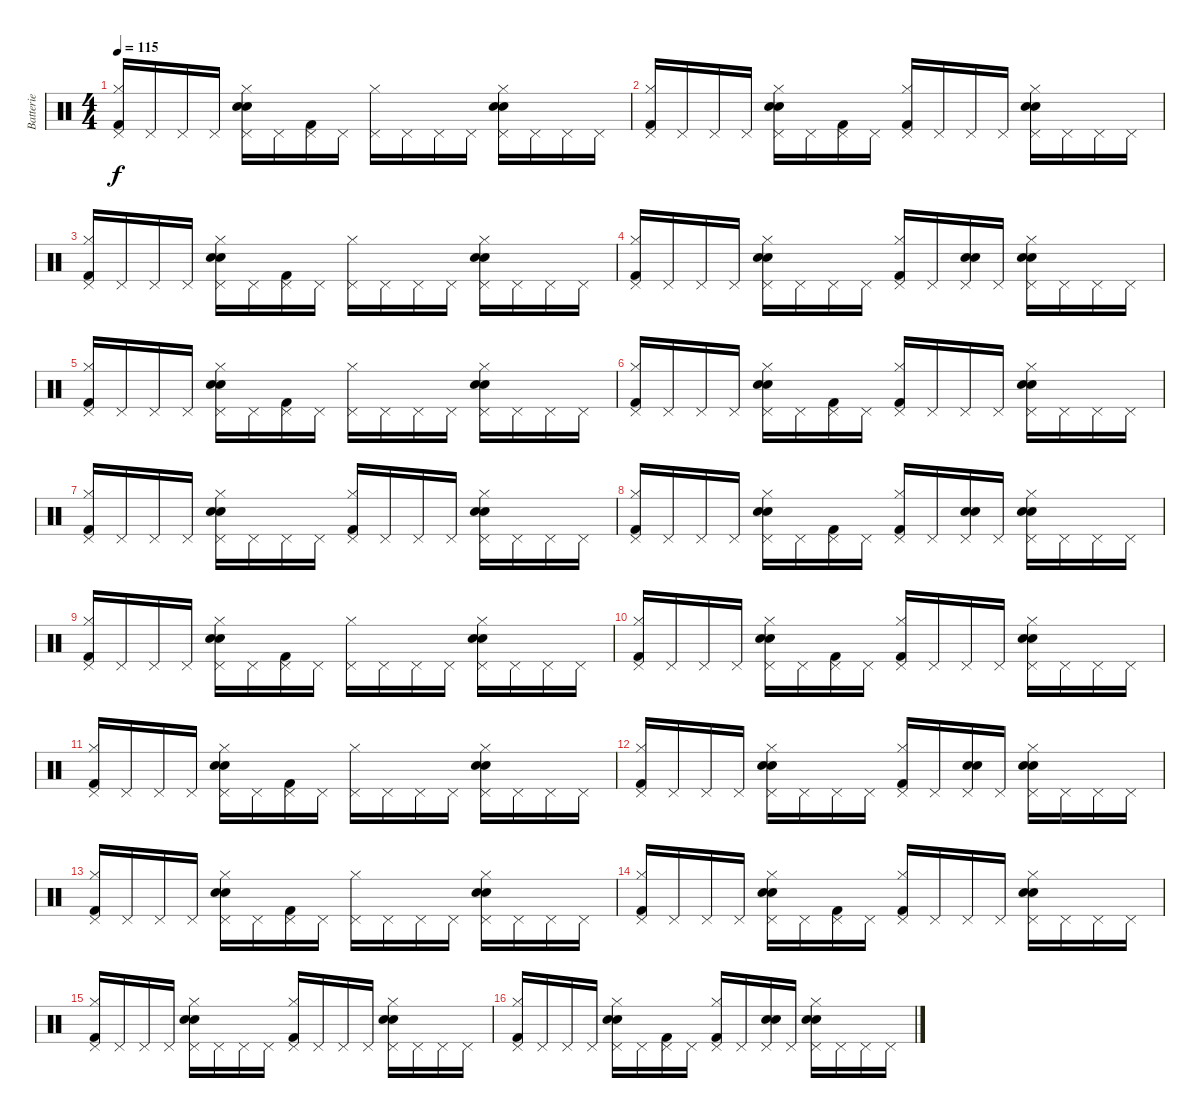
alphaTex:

\track ("Batterie" "Batterie") {instrument percussion}
\staff {score}
\articulation defaults
\ts (4 4)
\tempo 115
\clef neutral
\ks c
("Kick (hit) 2" "Hi-Hat (closed)" "Pedal Hi-Hat (hit)").16{dy f} "Pedal Hi-Hat (hit)".16 "Pedal Hi-Hat (hit)".16 "Pedal Hi-Hat (hit)".16 ("Electric Snare (hit)" "Snare (hit) 2" "Hi-Hat (closed)" "Pedal Hi-Hat (hit)").16 "Pedal Hi-Hat (hit)".16 ("Kick (hit) 2" "Pedal Hi-Hat (hit)").16 "Pedal Hi-Hat (hit)".16 ("Hi-Hat (closed)" "Pedal Hi-Hat (hit)").16 "Pedal Hi-Hat (hit)".16 "Pedal Hi-Hat (hit)".16 "Pedal Hi-Hat (hit)".16 ("Electric Snare (hit)" "Snare (hit) 2" "Hi-Hat (closed)" "Pedal Hi-Hat (hit)").16 "Pedal Hi-Hat (hit)".16 "Pedal Hi-Hat (hit)".16 "Pedal Hi-Hat (hit)".16 |
("Kick (hit) 2" "Hi-Hat (closed)" "Pedal Hi-Hat (hit)").16 "Pedal Hi-Hat (hit)".16 "Pedal Hi-Hat (hit)".16 "Pedal Hi-Hat (hit)".16 ("Electric Snare (hit)" "Snare (hit) 2" "Hi-Hat (closed)" "Pedal Hi-Hat (hit)").16 "Pedal Hi-Hat (hit)".16 ("Kick (hit) 2" "Pedal Hi-Hat (hit)").16 "Pedal Hi-Hat (hit)".16 ("Kick (hit) 2" "Hi-Hat (closed)" "Pedal Hi-Hat (hit)").16 "Pedal Hi-Hat (hit)".16 "Pedal Hi-Hat (hit)".16 "Pedal Hi-Hat (hit)".16 ("Electric Snare (hit)" "Snare (hit) 2" "Hi-Hat (closed)" "Pedal Hi-Hat (hit)").16 "Pedal Hi-Hat (hit)".16 "Pedal Hi-Hat (hit)".16 "Pedal Hi-Hat (hit)".16 |
("Kick (hit) 2" "Hi-Hat (closed)" "Pedal Hi-Hat (hit)").16 "Pedal Hi-Hat (hit)".16 "Pedal Hi-Hat (hit)".16 "Pedal Hi-Hat (hit)".16 ("Electric Snare (hit)" "Snare (hit) 2" "Hi-Hat (closed)" "Pedal Hi-Hat (hit)").16 "Pedal Hi-Hat (hit)".16 ("Kick (hit) 2" "Pedal Hi-Hat (hit)").16 "Pedal Hi-Hat (hit)".16 ("Hi-Hat (closed)" "Pedal Hi-Hat (hit)").16 "Pedal Hi-Hat (hit)".16 "Pedal Hi-Hat (hit)".16 "Pedal Hi-Hat (hit)".16 ("Electric Snare (hit)" "Snare (hit) 2" "Hi-Hat (closed)" "Pedal Hi-Hat (hit)").16 "Pedal Hi-Hat (hit)".16 "Pedal Hi-Hat (hit)".16 "Pedal Hi-Hat (hit)".16 |
("Kick (hit) 2" "Hi-Hat (closed)" "Pedal Hi-Hat (hit)").16 "Pedal Hi-Hat (hit)".16 "Pedal Hi-Hat (hit)".16 "Pedal Hi-Hat (hit)".16 ("Electric Snare (hit)" "Snare (hit) 2" "Hi-Hat (closed)" "Pedal Hi-Hat (hit)").16 "Pedal Hi-Hat (hit)".16 "Pedal Hi-Hat (hit)".16 "Pedal Hi-Hat (hit)".16 ("Kick (hit) 2" "Hi-Hat (closed)" "Pedal Hi-Hat (hit)").16 "Pedal Hi-Hat (hit)".16 ("Electric Snare (hit)" "Snare (hit) 2" "Pedal Hi-Hat (hit)").16 "Pedal Hi-Hat (hit)".16 ("Electric Snare (hit)" "Snare (hit) 2" "Hi-Hat (closed)" "Pedal Hi-Hat (hit)").16 "Pedal Hi-Hat (hit)".16 "Pedal Hi-Hat (hit)".16 "Pedal Hi-Hat (hit)".16 |
("Kick (hit) 2" "Hi-Hat (closed)" "Pedal Hi-Hat (hit)").16 "Pedal Hi-Hat (hit)".16 "Pedal Hi-Hat (hit)".16 "Pedal Hi-Hat (hit)".16 ("Electric Snare (hit)" "Snare (hit) 2" "Hi-Hat (closed)" "Pedal Hi-Hat (hit)").16 "Pedal Hi-Hat (hit)".16 ("Kick (hit) 2" "Pedal Hi-Hat (hit)").16 "Pedal Hi-Hat (hit)".16 ("Hi-Hat (closed)" "Pedal Hi-Hat (hit)").16 "Pedal Hi-Hat (hit)".16 "Pedal Hi-Hat (hit)".16 "Pedal Hi-Hat (hit)".16 ("Electric Snare (hit)" "Snare (hit) 2" "Hi-Hat (closed)" "Pedal Hi-Hat (hit)").16 "Pedal Hi-Hat (hit)".16 "Pedal Hi-Hat (hit)".16 "Pedal Hi-Hat (hit)".16 |
("Kick (hit) 2" "Hi-Hat (closed)" "Pedal Hi-Hat (hit)").16 "Pedal Hi-Hat (hit)".16 "Pedal Hi-Hat (hit)".16 "Pedal Hi-Hat (hit)".16 ("Electric Snare (hit)" "Snare (hit) 2" "Hi-Hat (closed)" "Pedal Hi-Hat (hit)").16 "Pedal Hi-Hat (hit)".16 ("Kick (hit) 2" "Pedal Hi-Hat (hit)").16 "Pedal Hi-Hat (hit)".16 ("Kick (hit) 2" "Hi-Hat (closed)" "Pedal Hi-Hat (hit)").16 "Pedal Hi-Hat (hit)".16 "Pedal Hi-Hat (hit)".16 "Pedal Hi-Hat (hit)".16 ("Electric Snare (hit)" "Snare (hit) 2" "Hi-Hat (closed)" "Pedal Hi-Hat (hit)").16 "Pedal Hi-Hat (hit)".16 "Pedal Hi-Hat (hit)".16 "Pedal Hi-Hat (hit)".16 |
("Kick (hit) 2" "Hi-Hat (closed)" "Pedal Hi-Hat (hit)").16 "Pedal Hi-Hat (hit)".16 "Pedal Hi-Hat (hit)".16 "Pedal Hi-Hat (hit)".16 ("Electric Snare (hit)" "Snare (hit) 2" "Hi-Hat (closed)" "Pedal Hi-Hat (hit)").16 "Pedal Hi-Hat (hit)".16 "Pedal Hi-Hat (hit)".16 "Pedal Hi-Hat (hit)".16 ("Kick (hit) 2" "Hi-Hat (closed)" "Pedal Hi-Hat (hit)").16 "Pedal Hi-Hat (hit)".16 "Pedal Hi-Hat (hit)".16 "Pedal Hi-Hat (hit)".16 ("Electric Snare (hit)" "Snare (hit) 2" "Hi-Hat (closed)" "Pedal Hi-Hat (hit)").16 "Pedal Hi-Hat (hit)".16 "Pedal Hi-Hat (hit)".16 "Pedal Hi-Hat (hit)".16 |
("Kick (hit) 2" "Hi-Hat (closed)" "Pedal Hi-Hat (hit)").16 "Pedal Hi-Hat (hit)".16 "Pedal Hi-Hat (hit)".16 "Pedal Hi-Hat (hit)".16 ("Electric Snare (hit)" "Snare (hit) 2" "Hi-Hat (closed)" "Pedal Hi-Hat (hit)").16 "Pedal Hi-Hat (hit)".16 ("Kick (hit) 2" "Pedal Hi-Hat (hit)").16 "Pedal Hi-Hat (hit)".16 ("Kick (hit) 2" "Hi-Hat (closed)" "Pedal Hi-Hat (hit)").16 "Pedal Hi-Hat (hit)".16 ("Electric Snare (hit)" "Snare (hit) 2" "Pedal Hi-Hat (hit)").16 "Pedal Hi-Hat (hit)".16 ("Electric Snare (hit)" "Snare (hit) 2" "Hi-Hat (closed)" "Pedal Hi-Hat (hit)").16 "Pedal Hi-Hat (hit)".16 "Pedal Hi-Hat (hit)".16 "Pedal Hi-Hat (hit)".16 |
("Kick (hit) 2" "Hi-Hat (closed)" "Pedal Hi-Hat (hit)").16 "Pedal Hi-Hat (hit)".16 "Pedal Hi-Hat (hit)".16 "Pedal Hi-Hat (hit)".16 ("Electric Snare (hit)" "Snare (hit) 2" "Hi-Hat (closed)" "Pedal Hi-Hat (hit)").16 "Pedal Hi-Hat (hit)".16 ("Kick (hit) 2" "Pedal Hi-Hat (hit)").16 "Pedal Hi-Hat (hit)".16 ("Hi-Hat (closed)" "Pedal Hi-Hat (hit)").16 "Pedal Hi-Hat (hit)".16 "Pedal Hi-Hat (hit)".16 "Pedal Hi-Hat (hit)".16 ("Electric Snare (hit)" "Snare (hit) 2" "Hi-Hat (closed)" "Pedal Hi-Hat (hit)").16 "Pedal Hi-Hat (hit)".16 "Pedal Hi-Hat (hit)".16 "Pedal Hi-Hat (hit)".16 |
("Kick (hit) 2" "Hi-Hat (closed)" "Pedal Hi-Hat (hit)").16 "Pedal Hi-Hat (hit)".16 "Pedal Hi-Hat (hit)".16 "Pedal Hi-Hat (hit)".16 ("Electric Snare (hit)" "Snare (hit) 2" "Hi-Hat (closed)" "Pedal Hi-Hat (hit)").16 "Pedal Hi-Hat (hit)".16 ("Kick (hit) 2" "Pedal Hi-Hat (hit)").16 "Pedal Hi-Hat (hit)".16 ("Kick (hit) 2" "Hi-Hat (closed)" "Pedal Hi-Hat (hit)").16 "Pedal Hi-Hat (hit)".16 "Pedal Hi-Hat (hit)".16 "Pedal Hi-Hat (hit)".16 ("Electric Snare (hit)" "Snare (hit) 2" "Hi-Hat (closed)" "Pedal Hi-Hat (hit)").16 "Pedal Hi-Hat (hit)".16 "Pedal Hi-Hat (hit)".16 "Pedal Hi-Hat (hit)".16 |
("Kick (hit) 2" "Hi-Hat (closed)" "Pedal Hi-Hat (hit)").16 "Pedal Hi-Hat (hit)".16 "Pedal Hi-Hat (hit)".16 "Pedal Hi-Hat (hit)".16 ("Electric Snare (hit)" "Snare (hit) 2" "Hi-Hat (closed)" "Pedal Hi-Hat (hit)").16 "Pedal Hi-Hat (hit)".16 ("Kick (hit) 2" "Pedal Hi-Hat (hit)").16 "Pedal Hi-Hat (hit)".16 ("Hi-Hat (closed)" "Pedal Hi-Hat (hit)").16 "Pedal Hi-Hat (hit)".16 "Pedal Hi-Hat (hit)".16 "Pedal Hi-Hat (hit)".16 ("Electric Snare (hit)" "Snare (hit) 2" "Hi-Hat (closed)" "Pedal Hi-Hat (hit)").16 "Pedal Hi-Hat (hit)".16 "Pedal Hi-Hat (hit)".16 "Pedal Hi-Hat (hit)".16 |
("Kick (hit) 2" "Hi-Hat (closed)" "Pedal Hi-Hat (hit)").16 "Pedal Hi-Hat (hit)".16 "Pedal Hi-Hat (hit)".16 "Pedal Hi-Hat (hit)".16 ("Electric Snare (hit)" "Snare (hit) 2" "Hi-Hat (closed)" "Pedal Hi-Hat (hit)").16 "Pedal Hi-Hat (hit)".16 "Pedal Hi-Hat (hit)".16 "Pedal Hi-Hat (hit)".16 ("Kick (hit) 2" "Hi-Hat (closed)" "Pedal Hi-Hat (hit)").16 "Pedal Hi-Hat (hit)".16 ("Electric Snare (hit)" "Snare (hit) 2" "Pedal Hi-Hat (hit)").16 "Pedal Hi-Hat (hit)".16 ("Electric Snare (hit)" "Snare (hit) 2" "Hi-Hat (closed)" "Pedal Hi-Hat (hit)").16 "Pedal Hi-Hat (hit)".16 "Pedal Hi-Hat (hit)".16 "Pedal Hi-Hat (hit)".16 |
("Kick (hit) 2" "Hi-Hat (closed)" "Pedal Hi-Hat (hit)").16 "Pedal Hi-Hat (hit)".16 "Pedal Hi-Hat (hit)".16 "Pedal Hi-Hat (hit)".16 ("Electric Snare (hit)" "Snare (hit) 2" "Hi-Hat (closed)" "Pedal Hi-Hat (hit)").16 "Pedal Hi-Hat (hit)".16 ("Kick (hit) 2" "Pedal Hi-Hat (hit)").16 "Pedal Hi-Hat (hit)".16 ("Hi-Hat (closed)" "Pedal Hi-Hat (hit)").16 "Pedal Hi-Hat (hit)".16 "Pedal Hi-Hat (hit)".16 "Pedal Hi-Hat (hit)".16 ("Electric Snare (hit)" "Snare (hit) 2" "Hi-Hat (closed)" "Pedal Hi-Hat (hit)").16 "Pedal Hi-Hat (hit)".16 "Pedal Hi-Hat (hit)".16 "Pedal Hi-Hat (hit)".16 |
("Kick (hit) 2" "Hi-Hat (closed)" "Pedal Hi-Hat (hit)").16 "Pedal Hi-Hat (hit)".16 "Pedal Hi-Hat (hit)".16 "Pedal Hi-Hat (hit)".16 ("Electric Snare (hit)" "Snare (hit) 2" "Hi-Hat (closed)" "Pedal Hi-Hat (hit)").16 "Pedal Hi-Hat (hit)".16 ("Kick (hit) 2" "Pedal Hi-Hat (hit)").16 "Pedal Hi-Hat (hit)".16 ("Kick (hit) 2" "Hi-Hat (closed)" "Pedal Hi-Hat (hit)").16 "Pedal Hi-Hat (hit)".16 "Pedal Hi-Hat (hit)".16 "Pedal Hi-Hat (hit)".16 ("Electric Snare (hit)" "Snare (hit) 2" "Hi-Hat (closed)" "Pedal Hi-Hat (hit)").16 "Pedal Hi-Hat (hit)".16 "Pedal Hi-Hat (hit)".16 "Pedal Hi-Hat (hit)".16 |
("Kick (hit) 2" "Hi-Hat (closed)" "Pedal Hi-Hat (hit)").16 "Pedal Hi-Hat (hit)".16 "Pedal Hi-Hat (hit)".16 "Pedal Hi-Hat (hit)".16 ("Electric Snare (hit)" "Snare (hit) 2" "Hi-Hat (closed)" "Pedal Hi-Hat (hit)").16 "Pedal Hi-Hat (hit)".16 "Pedal Hi-Hat (hit)".16 "Pedal Hi-Hat (hit)".16 ("Kick (hit) 2" "Hi-Hat (closed)" "Pedal Hi-Hat (hit)").16 "Pedal Hi-Hat (hit)".16 "Pedal Hi-Hat (hit)".16 "Pedal Hi-Hat (hit)".16 ("Electric Snare (hit)" "Snare (hit) 2" "Hi-Hat (closed)" "Pedal Hi-Hat (hit)").16 "Pedal Hi-Hat (hit)".16 "Pedal Hi-Hat (hit)".16 "Pedal Hi-Hat (hit)".16 |
("Kick (hit) 2" "Hi-Hat (closed)" "Pedal Hi-Hat (hit)").16 "Pedal Hi-Hat (hit)".16 "Pedal Hi-Hat (hit)".16 "Pedal Hi-Hat (hit)".16 ("Electric Snare (hit)" "Snare (hit) 2" "Hi-Hat (closed)" "Pedal Hi-Hat (hit)").16 "Pedal Hi-Hat (hit)".16 ("Kick (hit) 2" "Pedal Hi-Hat (hit)").16 "Pedal Hi-Hat (hit)".16 ("Kick (hit) 2" "Hi-Hat (closed)" "Pedal Hi-Hat (hit)").16 "Pedal Hi-Hat (hit)".16 ("Electric Snare (hit)" "Snare (hit) 2" "Pedal Hi-Hat (hit)").16 "Pedal Hi-Hat (hit)".16 ("Electric Snare (hit)" "Snare (hit) 2" "Hi-Hat (closed)" "Pedal Hi-Hat (hit)").16 "Pedal Hi-Hat (hit)".16 "Pedal Hi-Hat (hit)".16 "Pedal Hi-Hat (hit)".16
